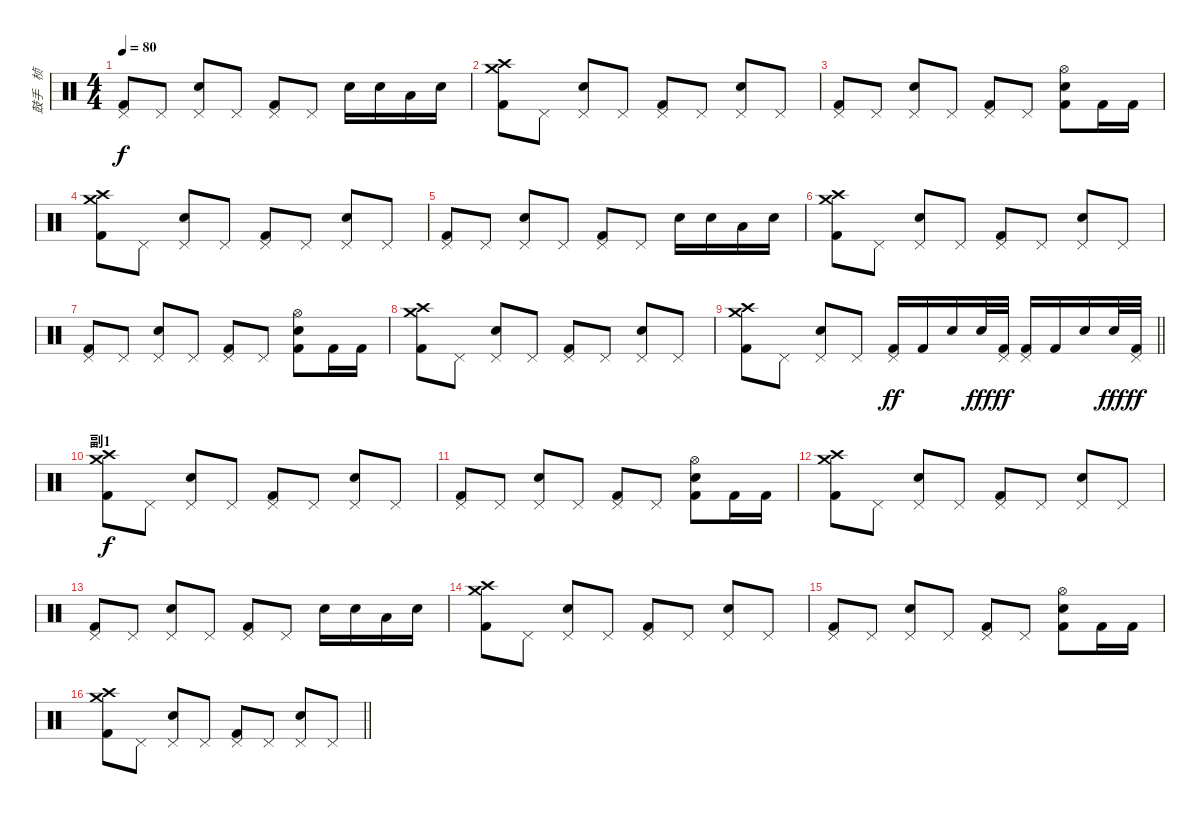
\track ("鼓手   桢" "鼓手   桢") {instrument percussion}
\staff {score}
\articulation defaults
\ts (4 4)
\tempo 80
\clef neutral
\ks c
("Pedal Hi-Hat (hit)" "Kick (hit) 2").8{dy f} "Pedal Hi-Hat (hit)".8 ("Pedal Hi-Hat (hit)" "Snare (hit) 2").8 "Pedal Hi-Hat (hit)".8 ("Pedal Hi-Hat (hit)" "Kick (hit) 2").8 "Pedal Hi-Hat (hit)".8 "Snare (hit) 2".16 "Snare (hit) 2".16 "Low Tom (hit)".16 "Snare (hit) 2".16 |
("Crash high (hit)" "Crash medium (hit)" "Kick (hit) 2").8 "Pedal Hi-Hat (hit)".8 ("Pedal Hi-Hat (hit)" "Snare (hit) 2").8 "Pedal Hi-Hat (hit)".8 ("Pedal Hi-Hat (hit)" "Kick (hit) 2").8 "Pedal Hi-Hat (hit)".8 ("Pedal Hi-Hat (hit)" "Snare (hit) 2").8 "Pedal Hi-Hat (hit)".8 |
("Pedal Hi-Hat (hit)" "Kick (hit) 2").8 "Pedal Hi-Hat (hit)".8 ("Pedal Hi-Hat (hit)" "Snare (hit) 2").8 "Pedal Hi-Hat (hit)".8 ("Pedal Hi-Hat (hit)" "Kick (hit) 2").8 "Pedal Hi-Hat (hit)".8 ("Hi-Hat (open)" "Snare (hit) 2" "Kick (hit) 2").8 "Kick (hit) 2".16 "Kick (hit) 2".16 |
("Crash high (hit)" "Crash medium (hit)" "Kick (hit) 2").8 "Pedal Hi-Hat (hit)".8 ("Pedal Hi-Hat (hit)" "Snare (hit) 2").8 "Pedal Hi-Hat (hit)".8 ("Pedal Hi-Hat (hit)" "Kick (hit) 2").8 "Pedal Hi-Hat (hit)".8 ("Pedal Hi-Hat (hit)" "Snare (hit) 2").8 "Pedal Hi-Hat (hit)".8 |
("Pedal Hi-Hat (hit)" "Kick (hit) 2").8 "Pedal Hi-Hat (hit)".8 ("Pedal Hi-Hat (hit)" "Snare (hit) 2").8 "Pedal Hi-Hat (hit)".8 ("Pedal Hi-Hat (hit)" "Kick (hit) 2").8 "Pedal Hi-Hat (hit)".8 "Snare (hit) 2".16 "Snare (hit) 2".16 "Low Tom (hit)".16 "Snare (hit) 2".16 |
("Crash high (hit)" "Crash medium (hit)" "Kick (hit) 2").8 "Pedal Hi-Hat (hit)".8 ("Pedal Hi-Hat (hit)" "Snare (hit) 2").8 "Pedal Hi-Hat (hit)".8 ("Pedal Hi-Hat (hit)" "Kick (hit) 2").8 "Pedal Hi-Hat (hit)".8 ("Pedal Hi-Hat (hit)" "Snare (hit) 2").8 "Pedal Hi-Hat (hit)".8 |
("Pedal Hi-Hat (hit)" "Kick (hit) 2").8 "Pedal Hi-Hat (hit)".8 ("Pedal Hi-Hat (hit)" "Snare (hit) 2").8 "Pedal Hi-Hat (hit)".8 ("Pedal Hi-Hat (hit)" "Kick (hit) 2").8 "Pedal Hi-Hat (hit)".8 ("Hi-Hat (open)" "Snare (hit) 2" "Kick (hit) 2").8 "Kick (hit) 2".16 "Kick (hit) 2".16 |
("Crash high (hit)" "Crash medium (hit)" "Kick (hit) 2").8 "Pedal Hi-Hat (hit)".8 ("Pedal Hi-Hat (hit)" "Snare (hit) 2").8 "Pedal Hi-Hat (hit)".8 ("Pedal Hi-Hat (hit)" "Kick (hit) 2").8 "Pedal Hi-Hat (hit)".8 ("Pedal Hi-Hat (hit)" "Snare (hit) 2").8 "Pedal Hi-Hat (hit)".8 |
\barLineRight lightlight
("Crash high (hit)" "Crash medium (hit)" "Kick (hit) 2").8 "Pedal Hi-Hat (hit)".8 ("Pedal Hi-Hat (hit)" "Snare (hit) 2").8 "Pedal Hi-Hat (hit)".8 ("Kick (hit) 2" "Pedal Hi-Hat (hit)").16{dy ff} "Kick (hit) 2".16 "Electric Snare (hit)".16 "Electric Snare (hit)".32{dy fff} ("Kick (hit) 2" "Pedal Hi-Hat (hit)").32{dy ff} ("Kick (hit) 2" "Pedal Hi-Hat (hit)").16 "Kick (hit) 2".16 "Electric Snare (hit)".16 "Electric Snare (hit)".32{dy fff} ("Kick (hit) 2" "Pedal Hi-Hat (hit)").32{dy ff} |
\section ("" "副1")
("Crash high (hit)" "Crash medium (hit)" "Kick (hit) 2").8{dy f} "Pedal Hi-Hat (hit)".8 ("Pedal Hi-Hat (hit)" "Snare (hit) 2").8 "Pedal Hi-Hat (hit)".8 ("Pedal Hi-Hat (hit)" "Kick (hit) 2").8 "Pedal Hi-Hat (hit)".8 ("Pedal Hi-Hat (hit)" "Snare (hit) 2").8 "Pedal Hi-Hat (hit)".8 |
("Pedal Hi-Hat (hit)" "Kick (hit) 2").8 "Pedal Hi-Hat (hit)".8 ("Pedal Hi-Hat (hit)" "Snare (hit) 2").8 "Pedal Hi-Hat (hit)".8 ("Pedal Hi-Hat (hit)" "Kick (hit) 2").8 "Pedal Hi-Hat (hit)".8 ("Hi-Hat (open)" "Snare (hit) 2" "Kick (hit) 2").8 "Kick (hit) 2".16 "Kick (hit) 2".16 |
("Crash high (hit)" "Crash medium (hit)" "Kick (hit) 2").8 "Pedal Hi-Hat (hit)".8 ("Pedal Hi-Hat (hit)" "Snare (hit) 2").8 "Pedal Hi-Hat (hit)".8 ("Pedal Hi-Hat (hit)" "Kick (hit) 2").8 "Pedal Hi-Hat (hit)".8 ("Pedal Hi-Hat (hit)" "Snare (hit) 2").8 "Pedal Hi-Hat (hit)".8 |
("Pedal Hi-Hat (hit)" "Kick (hit) 2").8 "Pedal Hi-Hat (hit)".8 ("Pedal Hi-Hat (hit)" "Snare (hit) 2").8 "Pedal Hi-Hat (hit)".8 ("Pedal Hi-Hat (hit)" "Kick (hit) 2").8 "Pedal Hi-Hat (hit)".8 "Snare (hit) 2".16 "Snare (hit) 2".16 "Low Tom (hit)".16 "Snare (hit) 2".16 |
("Crash high (hit)" "Crash medium (hit)" "Kick (hit) 2").8 "Pedal Hi-Hat (hit)".8 ("Pedal Hi-Hat (hit)" "Snare (hit) 2").8 "Pedal Hi-Hat (hit)".8 ("Pedal Hi-Hat (hit)" "Kick (hit) 2").8 "Pedal Hi-Hat (hit)".8 ("Pedal Hi-Hat (hit)" "Snare (hit) 2").8 "Pedal Hi-Hat (hit)".8 |
("Pedal Hi-Hat (hit)" "Kick (hit) 2").8 "Pedal Hi-Hat (hit)".8 ("Pedal Hi-Hat (hit)" "Snare (hit) 2").8 "Pedal Hi-Hat (hit)".8 ("Pedal Hi-Hat (hit)" "Kick (hit) 2").8 "Pedal Hi-Hat (hit)".8 ("Hi-Hat (open)" "Snare (hit) 2" "Kick (hit) 2").8 "Kick (hit) 2".16 "Kick (hit) 2".16 |
\barLineRight lightlight
("Crash high (hit)" "Crash medium (hit)" "Kick (hit) 2").8 "Pedal Hi-Hat (hit)".8 ("Pedal Hi-Hat (hit)" "Snare (hit) 2").8 "Pedal Hi-Hat (hit)".8 ("Pedal Hi-Hat (hit)" "Kick (hit) 2").8 "Pedal Hi-Hat (hit)".8 ("Pedal Hi-Hat (hit)" "Snare (hit) 2").8 "Pedal Hi-Hat (hit)".8
